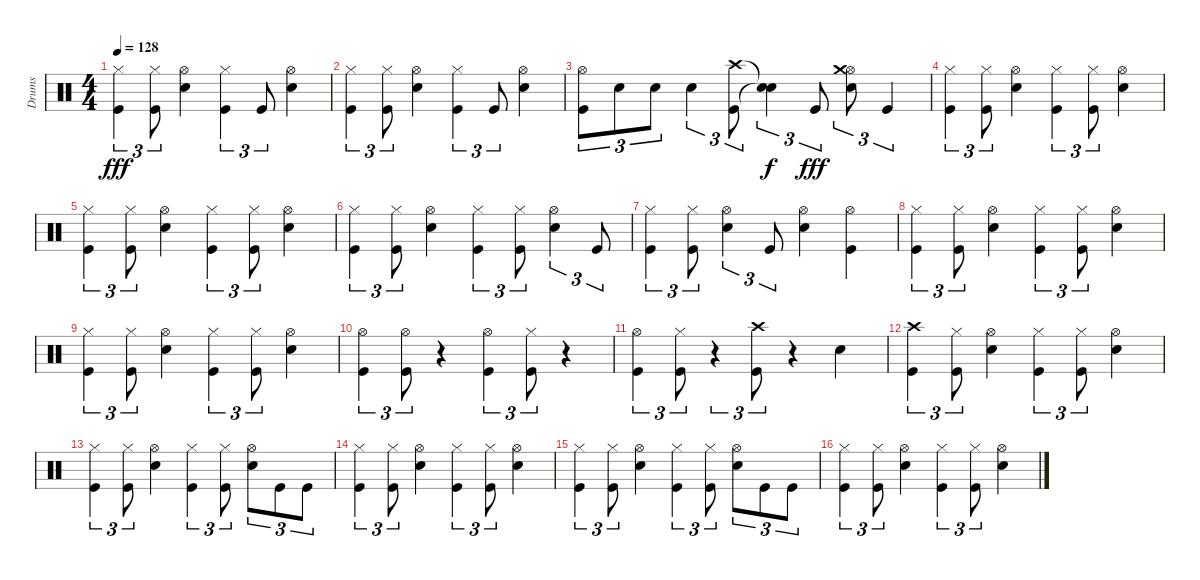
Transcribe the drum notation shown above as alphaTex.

\track ("Drums" "Drums") {instrument percussion}
\staff {score}
\articulation defaults
\ts (4 4)
\tempo 128
\clef neutral
\ks c
("Hi-Hat (closed)" "Kick (hit)").4{tu (3 2) dy fff} ("Hi-Hat (closed)" "Kick (hit)").8{tu (3 2)} ("Hi-Hat (open)" "Snare (hit) 2").4 ("Hi-Hat (closed)" "Kick (hit)").4{tu (3 2)} "Kick (hit)".8{tu (3 2)} ("Hi-Hat (open)" "Snare (hit) 2").4 |
("Hi-Hat (closed)" "Kick (hit)").4{tu (3 2)} ("Hi-Hat (closed)" "Kick (hit)").8{tu (3 2)} ("Hi-Hat (open)" "Snare (hit) 2").4 ("Hi-Hat (closed)" "Kick (hit)").4{tu (3 2)} "Kick (hit)".8{tu (3 2)} ("Hi-Hat (open)" "Snare (hit) 2").4 |
("Hi-Hat (open)" "Kick (hit)").8{tu (3 2)} "Snare (hit) 2".8{tu (3 2)} "Snare (hit) 2".8{tu (3 2)} "Snare (hit) 2".4{tu (3 2)} ("Crash high (hit)" "Kick (hit)").8{tu (3 2)} ("Snare (hit)"{t} "Snare (hit)"{t}).4{tu (3 2) dy f} "Kick (hit)".8{tu (3 2) dy fff} ("Hi-Hat (open)" "Crash medium (hit)" "Snare (hit) 2").8{tu (3 2)} "Kick (hit)".4{tu (3 2)} |
("Hi-Hat (closed)" "Kick (hit)").4{tu (3 2)} ("Hi-Hat (closed)" "Kick (hit)").8{tu (3 2)} ("Hi-Hat (open)" "Snare (hit) 2").4 ("Hi-Hat (closed)" "Kick (hit)").4{tu (3 2)} ("Hi-Hat (closed)" "Kick (hit)").8{tu (3 2)} ("Hi-Hat (open)" "Snare (hit) 2").4 |
("Hi-Hat (closed)" "Kick (hit)").4{tu (3 2)} ("Hi-Hat (closed)" "Kick (hit)").8{tu (3 2)} ("Hi-Hat (open)" "Snare (hit) 2").4 ("Hi-Hat (closed)" "Kick (hit)").4{tu (3 2)} ("Hi-Hat (closed)" "Kick (hit)").8{tu (3 2)} ("Hi-Hat (open)" "Snare (hit) 2").4 |
("Hi-Hat (closed)" "Kick (hit)").4{tu (3 2)} ("Hi-Hat (closed)" "Kick (hit)").8{tu (3 2)} ("Hi-Hat (open)" "Snare (hit) 2").4 ("Hi-Hat (closed)" "Kick (hit)").4{tu (3 2)} ("Hi-Hat (closed)" "Kick (hit)").8{tu (3 2)} ("Hi-Hat (open)" "Snare (hit) 2").4{tu (3 2)} "Kick (hit)".8{tu (3 2)} |
("Hi-Hat (closed)" "Kick (hit)").4{tu (3 2)} ("Hi-Hat (closed)" "Kick (hit)").8{tu (3 2)} ("Hi-Hat (open)" "Snare (hit) 2").4{tu (3 2)} "Kick (hit)".8{tu (3 2)} ("Hi-Hat (open)" "Snare (hit) 2").4 ("Hi-Hat (open)" "Kick (hit)").4 |
("Hi-Hat (closed)" "Kick (hit)").4{tu (3 2)} ("Hi-Hat (closed)" "Kick (hit)").8{tu (3 2)} ("Hi-Hat (open)" "Snare (hit) 2").4 ("Hi-Hat (closed)" "Kick (hit)").4{tu (3 2)} ("Hi-Hat (closed)" "Kick (hit)").8{tu (3 2)} ("Hi-Hat (open)" "Snare (hit) 2").4 |
("Hi-Hat (closed)" "Kick (hit)").4{tu (3 2)} ("Hi-Hat (closed)" "Kick (hit)").8{tu (3 2)} ("Hi-Hat (open)" "Snare (hit) 2").4 ("Hi-Hat (closed)" "Kick (hit)").4{tu (3 2)} ("Hi-Hat (closed)" "Kick (hit)").8{tu (3 2)} ("Hi-Hat (open)" "Snare (hit) 2").4 |
("Hi-Hat (open)" "Kick (hit)").4{tu (3 2)} ("Hi-Hat (open)" "Kick (hit)").8{tu (3 2)} r.4 ("Hi-Hat (open)" "Kick (hit)").4{tu (3 2)} ("Hi-Hat (closed)" "Kick (hit)").8{tu (3 2)} r.4 |
("Hi-Hat (open)" "Kick (hit)").4{tu (3 2)} ("Hi-Hat (closed)" "Kick (hit)").8{tu (3 2)} r.4{tu (3 2)} ("Crash high (hit)" "Kick (hit)").8{tu (3 2)} r.4 "Snare (hit) 2".4 |
("Crash high (hit)" "Kick (hit)").4{tu (3 2)} ("Hi-Hat (closed)" "Kick (hit)").8{tu (3 2)} ("Hi-Hat (open)" "Snare (hit) 2").4 ("Hi-Hat (closed)" "Kick (hit)").4{tu (3 2)} ("Hi-Hat (closed)" "Kick (hit)").8{tu (3 2)} ("Hi-Hat (open)" "Snare (hit) 2").4 |
("Hi-Hat (closed)" "Kick (hit)").4{tu (3 2)} ("Hi-Hat (closed)" "Kick (hit)").8{tu (3 2)} ("Hi-Hat (open)" "Snare (hit) 2").4 ("Hi-Hat (closed)" "Kick (hit)").4{tu (3 2)} ("Hi-Hat (closed)" "Kick (hit)").8{tu (3 2)} ("Hi-Hat (open)" "Snare (hit) 2").8{tu (3 2)} "Kick (hit)".8{tu (3 2)} "Kick (hit)".8{tu (3 2)} |
("Hi-Hat (closed)" "Kick (hit)").4{tu (3 2)} ("Hi-Hat (closed)" "Kick (hit)").8{tu (3 2)} ("Hi-Hat (open)" "Snare (hit) 2").4 ("Hi-Hat (closed)" "Kick (hit)").4{tu (3 2)} ("Hi-Hat (closed)" "Kick (hit)").8{tu (3 2)} ("Hi-Hat (open)" "Snare (hit) 2").4 |
("Hi-Hat (closed)" "Kick (hit)").4{tu (3 2)} ("Hi-Hat (closed)" "Kick (hit)").8{tu (3 2)} ("Hi-Hat (open)" "Snare (hit) 2").4 ("Hi-Hat (closed)" "Kick (hit)").4{tu (3 2)} ("Hi-Hat (closed)" "Kick (hit)").8{tu (3 2)} ("Hi-Hat (open)" "Snare (hit) 2").8{tu (3 2)} "Kick (hit)".8{tu (3 2)} "Kick (hit)".8{tu (3 2)} |
("Hi-Hat (closed)" "Kick (hit)").4{tu (3 2)} ("Hi-Hat (closed)" "Kick (hit)").8{tu (3 2)} ("Hi-Hat (open)" "Snare (hit) 2").4 ("Hi-Hat (closed)" "Kick (hit)").4{tu (3 2)} ("Hi-Hat (closed)" "Kick (hit)").8{tu (3 2)} ("Hi-Hat (open)" "Snare (hit) 2").4
